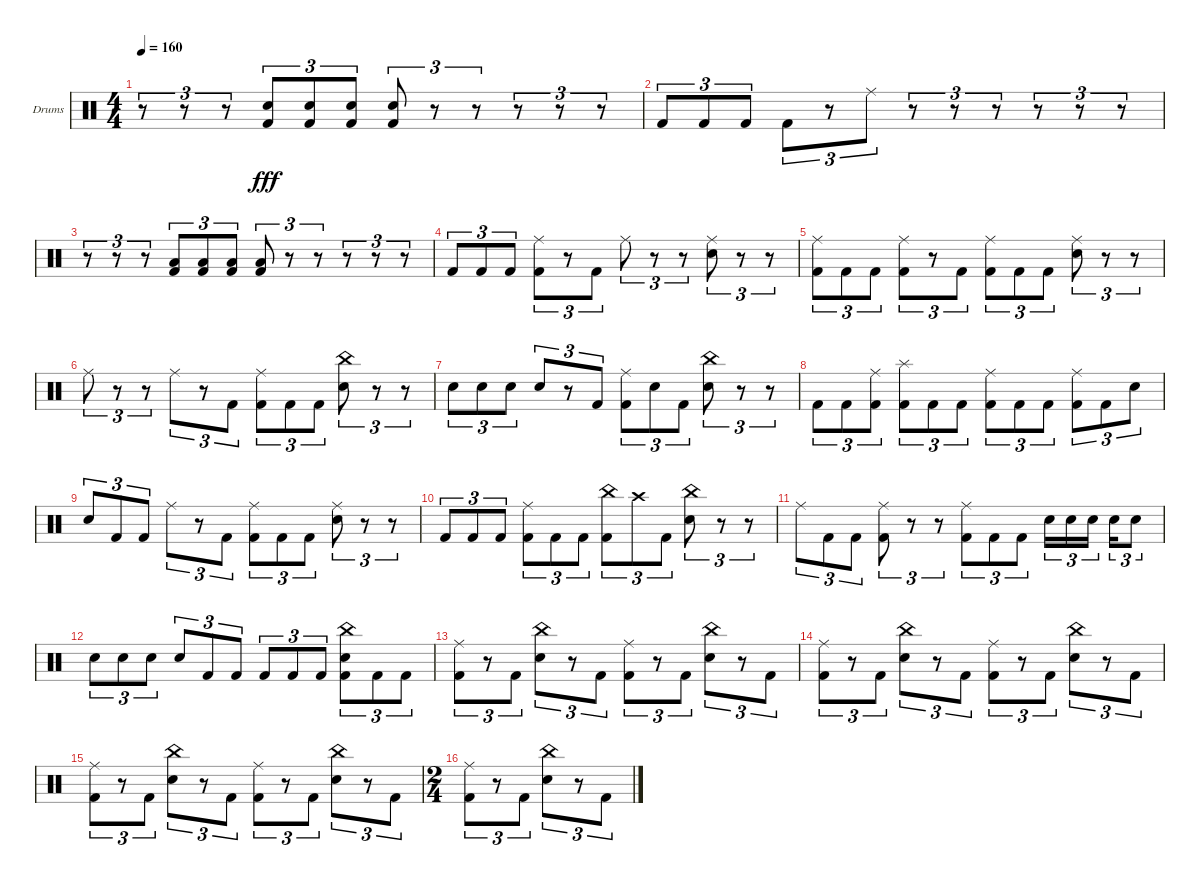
\bracketExtendMode groupsimilarinstruments
\firstSystemTrackNameOrientation horizontal
\otherSystemsTrackNameOrientation horizontal
\track ("Gigante" "Drums") {instrument percussion}
\staff {score}
\articulation defaults
\ts (4 4)
\tempo 160
\clef neutral
\ks c
r.8{tu (3 2) dy fff} r.8{tu (3 2)} r.8{tu (3 2)} ("Snare (hit) 2" "Kick (hit) 2").8{tu (3 2)} ("Snare (hit) 2" "Kick (hit) 2").8{tu (3 2)} ("Snare (hit) 2" "Kick (hit) 2").8{tu (3 2)} ("Snare (hit) 2" "Kick (hit) 2").8{tu (3 2)} r.8{tu (3 2)} r.8{tu (3 2)} r.8{tu (3 2)} r.8{tu (3 2)} r.8{tu (3 2)} |
"Kick (hit) 2".8{tu (3 2)} "Kick (hit) 2".8{tu (3 2)} "Kick (hit) 2".8{tu (3 2)} "Kick (hit) 2".8{tu (3 2)} r.8{tu (3 2)} "Ride (middle)".8{tu (3 2)} r.8{tu (3 2)} r.8{tu (3 2)} r.8{tu (3 2)} r.8{tu (3 2)} r.8{tu (3 2)} r.8{tu (3 2)} |
r.8{tu (3 2)} r.8{tu (3 2)} r.8{tu (3 2)} ("Low Tom (hit)" "Kick (hit) 2").8{tu (3 2)} ("Low Tom (hit)" "Kick (hit) 2").8{tu (3 2)} ("Low Tom (hit)" "Kick (hit) 2").8{tu (3 2)} ("Low Tom (hit)" "Kick (hit) 2").8{tu (3 2)} r.8{tu (3 2)} r.8{tu (3 2)} r.8{tu (3 2)} r.8{tu (3 2)} r.8{tu (3 2)} |
"Kick (hit) 2".8{tu (3 2)} "Kick (hit) 2".8{tu (3 2)} "Kick (hit) 2".8{tu (3 2)} ("Ride (middle)" "Kick (hit) 2").8{tu (3 2)} r.8{tu (3 2)} "Kick (hit) 2".8{tu (3 2)} "Ride (middle)".8{tu (3 2)} r.8{tu (3 2)} r.8{tu (3 2)} ("Ride (middle)" "Snare (hit) 2").8{tu (3 2)} r.8{tu (3 2)} r.8{tu (3 2)} |
("Ride (middle)" "Kick (hit) 2").8{tu (3 2)} "Kick (hit) 2".8{tu (3 2)} "Kick (hit) 2".8{tu (3 2)} ("Ride (middle)" "Kick (hit) 2").8{tu (3 2)} r.8{tu (3 2)} "Kick (hit) 2".8{tu (3 2)} ("Ride (middle)" "Kick (hit) 2").8{tu (3 2)} "Kick (hit) 2".8{tu (3 2)} "Kick (hit) 2".8{tu (3 2)} ("Ride (middle)" "Snare (hit) 2").8{tu (3 2)} r.8{tu (3 2)} r.8{tu (3 2)} |
"Ride (middle)".8{tu (3 2)} r.8{tu (3 2)} r.8{tu (3 2)} "Ride (middle)".8{tu (3 2)} r.8{tu (3 2)} "Kick (hit) 2".8{tu (3 2)} ("Ride (middle)" "Kick (hit) 2").8{tu (3 2)} "Kick (hit) 2".8{tu (3 2)} "Kick (hit) 2".8{tu (3 2)} ("China (hit)" "Snare (hit) 2").8{tu (3 2)} r.8{tu (3 2)} r.8{tu (3 2)} |
"Snare (hit) 2".8{tu (3 2)} "Snare (hit) 2".8{tu (3 2)} "Snare (hit) 2".8{tu (3 2)} "Snare (hit) 2".8{tu (3 2)} r.8{tu (3 2)} "Kick (hit) 2".8{tu (3 2)} ("Ride (middle)" "Kick (hit) 2").8{tu (3 2)} "Snare (hit) 2".8{tu (3 2)} "Kick (hit) 2".8{tu (3 2)} ("China (hit)" "Snare (hit) 2").8{tu (3 2)} r.8{tu (3 2)} r.8{tu (3 2)} |
"Kick (hit) 2".8{tu (3 2)} "Kick (hit) 2".8{tu (3 2)} ("Ride (middle)" "Kick (hit) 2").8{tu (3 2)} ("Splash (hit)" "Kick (hit) 2").8{tu (3 2)} "Kick (hit) 2".8{tu (3 2)} "Kick (hit) 2".8{tu (3 2)} ("Ride (middle)" "Kick (hit) 2").8{tu (3 2)} "Kick (hit) 2".8{tu (3 2)} "Kick (hit) 2".8{tu (3 2)} ("Ride (middle)" "Kick (hit) 2").8{tu (3 2)} "Kick (hit) 2".8{tu (3 2)} "Snare (hit) 2".8{tu (3 2)} |
"Snare (hit) 2".8{tu (3 2)} "Kick (hit) 2".8{tu (3 2)} "Kick (hit) 2".8{tu (3 2)} "Ride (middle)".8{tu (3 2)} r.8{tu (3 2)} "Kick (hit) 2".8{tu (3 2)} ("Ride (middle)" "Kick (hit) 2").8{tu (3 2)} "Kick (hit) 2".8{tu (3 2)} "Kick (hit) 2".8{tu (3 2)} ("Ride (middle)" "Snare (hit) 2").8{tu (3 2)} r.8{tu (3 2)} r.8{tu (3 2)} |
"Kick (hit) 2".8{tu (3 2)} "Kick (hit) 2".8{tu (3 2)} "Kick (hit) 2".8{tu (3 2)} ("Ride (middle)" "Kick (hit) 2").8{tu (3 2)} "Kick (hit) 2".8{tu (3 2)} "Kick (hit) 2".8{tu (3 2)} ("China (hit)" "Kick (hit) 2").8{tu (3 2)} "Crash high (hit)".8{tu (3 2)} "Kick (hit) 2".8{tu (3 2)} ("China (hit)" "Snare (hit) 2").8{tu (3 2)} r.8{tu (3 2)} r.8{tu (3 2)} |
"Ride (middle)".8{tu (3 2)} "Kick (hit) 2".8{tu (3 2)} "Kick (hit) 2".8{tu (3 2)} ("Ride (middle)" "Kick (hit) 2").8{tu (3 2)} r.8{tu (3 2)} r.8{tu (3 2)} ("Ride (middle)" "Kick (hit) 2").8{tu (3 2)} "Kick (hit) 2".8{tu (3 2)} "Kick (hit) 2".8{tu (3 2)} "Snare (hit) 2".16{tu (3 2)} "Snare (hit) 2".16{tu (3 2)} "Snare (hit) 2".16{tu (3 2)} "Snare (hit) 2".16{tu (3 2)} "Snare (hit) 2".8{tu (3 2)} |
"Snare (hit) 2".8{tu (3 2)} "Snare (hit) 2".8{tu (3 2)} "Snare (hit) 2".8{tu (3 2)} "Snare (hit) 2".8{tu (3 2)} "Kick (hit) 2".8{tu (3 2)} "Kick (hit) 2".8{tu (3 2)} "Kick (hit) 2".8{tu (3 2)} "Kick (hit) 2".8{tu (3 2)} "Kick (hit) 2".8{tu (3 2)} ("China (hit)" "Snare (hit) 2" "Kick (hit) 2").8{tu (3 2)} "Kick (hit) 2".8{tu (3 2)} "Kick (hit) 2".8{tu (3 2)} |
("Ride (middle)" "Kick (hit) 2").8{tu (3 2)} r.8{tu (3 2)} "Kick (hit) 2".8{tu (3 2)} ("China (hit)" "Snare (hit) 2").8{tu (3 2)} r.8{tu (3 2)} "Kick (hit) 2".8{tu (3 2)} ("Ride (middle)" "Kick (hit) 2").8{tu (3 2)} r.8{tu (3 2)} "Kick (hit) 2".8{tu (3 2)} ("China (hit)" "Snare (hit) 2").8{tu (3 2)} r.8{tu (3 2)} "Kick (hit) 2".8{tu (3 2)} |
("Ride (middle)" "Kick (hit) 2").8{tu (3 2)} r.8{tu (3 2)} "Kick (hit) 2".8{tu (3 2)} ("China (hit)" "Snare (hit) 2").8{tu (3 2)} r.8{tu (3 2)} "Kick (hit) 2".8{tu (3 2)} ("Ride (middle)" "Kick (hit) 2").8{tu (3 2)} r.8{tu (3 2)} "Kick (hit) 2".8{tu (3 2)} ("China (hit)" "Snare (hit) 2").8{tu (3 2)} r.8{tu (3 2)} "Kick (hit) 2".8{tu (3 2)} |
("Ride (middle)" "Kick (hit) 2").8{tu (3 2)} r.8{tu (3 2)} "Kick (hit) 2".8{tu (3 2)} ("China (hit)" "Snare (hit) 2").8{tu (3 2)} r.8{tu (3 2)} "Kick (hit) 2".8{tu (3 2)} ("Ride (middle)" "Kick (hit) 2").8{tu (3 2)} r.8{tu (3 2)} "Kick (hit) 2".8{tu (3 2)} ("China (hit)" "Snare (hit) 2").8{tu (3 2)} r.8{tu (3 2)} "Kick (hit) 2".8{tu (3 2)} |
\ts (2 4)
\beaming (8 2 2)
("Ride (middle)" "Kick (hit) 2").8{tu (3 2)} r.8{tu (3 2)} "Kick (hit) 2".8{tu (3 2)} ("China (hit)" "Snare (hit) 2").8{tu (3 2)} r.8{tu (3 2)} "Kick (hit) 2".8{tu (3 2)}
